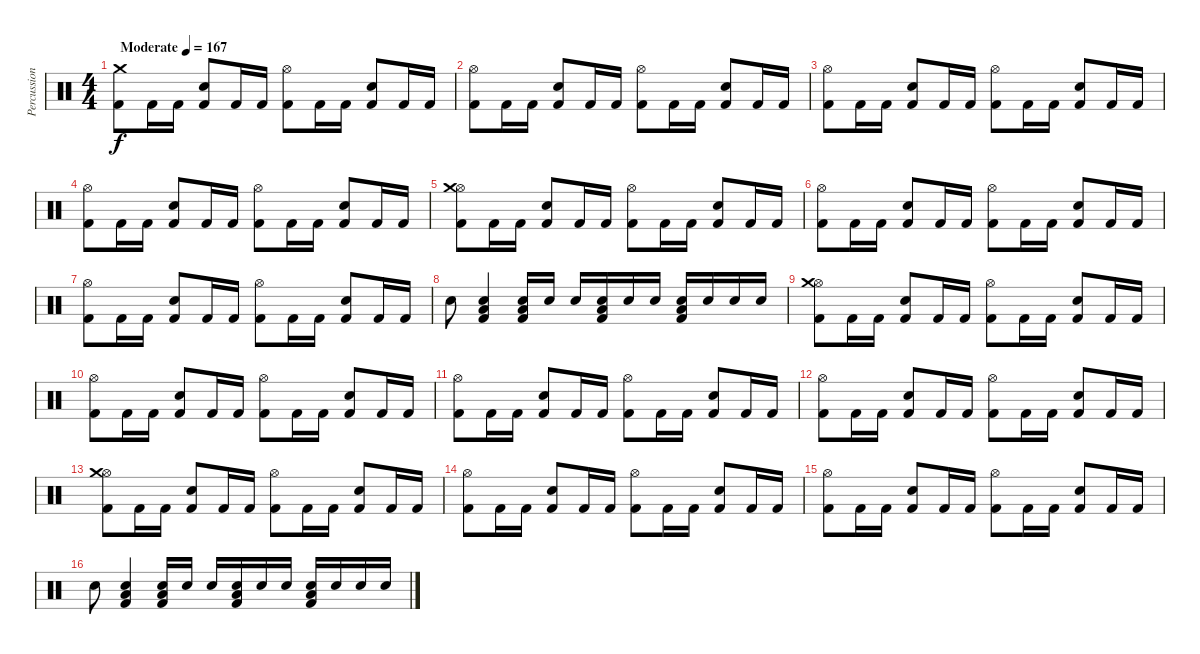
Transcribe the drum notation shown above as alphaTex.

\track ("Percussion" "Percussion") {instrument percussion}
\staff {score}
\articulation defaults
\ts (4 4)
\tempo (167 "Moderate")
\clef neutral
\ks c
("Crash medium (hit)" "Kick (hit) 2").8{dy f} "Kick (hit) 2".16 "Kick (hit) 2".16 ("Snare (hit) 2" "Kick (hit) 2").8 "Kick (hit) 2".16 "Kick (hit) 2".16 ("Hi-Hat (open)" "Kick (hit) 2").8 "Kick (hit) 2".16 "Kick (hit) 2".16 ("Snare (hit) 2" "Kick (hit) 2").8 "Kick (hit) 2".16 "Kick (hit) 2".16 |
("Hi-Hat (open)" "Kick (hit) 2").8 "Kick (hit) 2".16 "Kick (hit) 2".16 ("Snare (hit) 2" "Kick (hit) 2").8 "Kick (hit) 2".16 "Kick (hit) 2".16 ("Hi-Hat (open)" "Kick (hit) 2").8 "Kick (hit) 2".16 "Kick (hit) 2".16 ("Snare (hit) 2" "Kick (hit) 2").8 "Kick (hit) 2".16 "Kick (hit) 2".16 |
("Hi-Hat (open)" "Kick (hit) 2").8 "Kick (hit) 2".16 "Kick (hit) 2".16 ("Snare (hit) 2" "Kick (hit) 2").8 "Kick (hit) 2".16 "Kick (hit) 2".16 ("Hi-Hat (open)" "Kick (hit) 2").8 "Kick (hit) 2".16 "Kick (hit) 2".16 ("Snare (hit) 2" "Kick (hit) 2").8 "Kick (hit) 2".16 "Kick (hit) 2".16 |
("Hi-Hat (open)" "Kick (hit) 2").8 "Kick (hit) 2".16 "Kick (hit) 2".16 ("Snare (hit) 2" "Kick (hit) 2").8 "Kick (hit) 2".16 "Kick (hit) 2".16 ("Hi-Hat (open)" "Kick (hit) 2").8 "Kick (hit) 2".16 "Kick (hit) 2".16 ("Snare (hit) 2" "Kick (hit) 2").8 "Kick (hit) 2".16 "Kick (hit) 2".16 |
("Hi-Hat (open)" "Crash medium (hit)" "Kick (hit) 2").8 "Kick (hit) 2".16 "Kick (hit) 2".16 ("Snare (hit) 2" "Kick (hit) 2").8 "Kick (hit) 2".16 "Kick (hit) 2".16 ("Hi-Hat (open)" "Kick (hit) 2").8 "Kick (hit) 2".16 "Kick (hit) 2".16 ("Snare (hit) 2" "Kick (hit) 2").8 "Kick (hit) 2".16 "Kick (hit) 2".16 |
("Hi-Hat (open)" "Kick (hit) 2").8 "Kick (hit) 2".16 "Kick (hit) 2".16 ("Snare (hit) 2" "Kick (hit) 2").8 "Kick (hit) 2".16 "Kick (hit) 2".16 ("Hi-Hat (open)" "Kick (hit) 2").8 "Kick (hit) 2".16 "Kick (hit) 2".16 ("Snare (hit) 2" "Kick (hit) 2").8 "Kick (hit) 2".16 "Kick (hit) 2".16 |
("Hi-Hat (open)" "Kick (hit) 2").8 "Kick (hit) 2".16 "Kick (hit) 2".16 ("Snare (hit) 2" "Kick (hit) 2").8 "Kick (hit) 2".16 "Kick (hit) 2".16 ("Hi-Hat (open)" "Kick (hit) 2").8 "Kick (hit) 2".16 "Kick (hit) 2".16 ("Snare (hit) 2" "Kick (hit) 2").8 "Kick (hit) 2".16 "Kick (hit) 2".16 |
"Snare (hit) 2".8 ("Snare (hit) 2" "Low Tom (hit)" "Kick (hit) 2").4 ("Snare (hit) 2" "Low Tom (hit)" "Kick (hit) 2").16 "Snare (hit) 2".16 "Snare (hit) 2".16 ("Snare (hit) 2" "Low Tom (hit)" "Kick (hit) 2").16 "Snare (hit) 2".16 "Snare (hit) 2".16 ("Snare (hit) 2" "Low Tom (hit)" "Kick (hit) 2").16 "Snare (hit) 2".16 "Snare (hit) 2".16 "Snare (hit) 2".16 |
("Hi-Hat (open)" "Crash medium (hit)" "Kick (hit) 2").8 "Kick (hit) 2".16 "Kick (hit) 2".16 ("Snare (hit) 2" "Kick (hit) 2").8 "Kick (hit) 2".16 "Kick (hit) 2".16 ("Hi-Hat (open)" "Kick (hit) 2").8 "Kick (hit) 2".16 "Kick (hit) 2".16 ("Snare (hit) 2" "Kick (hit) 2").8 "Kick (hit) 2".16 "Kick (hit) 2".16 |
("Hi-Hat (open)" "Kick (hit) 2").8 "Kick (hit) 2".16 "Kick (hit) 2".16 ("Snare (hit) 2" "Kick (hit) 2").8 "Kick (hit) 2".16 "Kick (hit) 2".16 ("Hi-Hat (open)" "Kick (hit) 2").8 "Kick (hit) 2".16 "Kick (hit) 2".16 ("Snare (hit) 2" "Kick (hit) 2").8 "Kick (hit) 2".16 "Kick (hit) 2".16 |
("Hi-Hat (open)" "Kick (hit) 2").8 "Kick (hit) 2".16 "Kick (hit) 2".16 ("Snare (hit) 2" "Kick (hit) 2").8 "Kick (hit) 2".16 "Kick (hit) 2".16 ("Hi-Hat (open)" "Kick (hit) 2").8 "Kick (hit) 2".16 "Kick (hit) 2".16 ("Snare (hit) 2" "Kick (hit) 2").8 "Kick (hit) 2".16 "Kick (hit) 2".16 |
("Hi-Hat (open)" "Kick (hit) 2").8 "Kick (hit) 2".16 "Kick (hit) 2".16 ("Snare (hit) 2" "Kick (hit) 2").8 "Kick (hit) 2".16 "Kick (hit) 2".16 ("Hi-Hat (open)" "Kick (hit) 2").8 "Kick (hit) 2".16 "Kick (hit) 2".16 ("Snare (hit) 2" "Kick (hit) 2").8 "Kick (hit) 2".16 "Kick (hit) 2".16 |
("Hi-Hat (open)" "Crash medium (hit)" "Kick (hit) 2").8 "Kick (hit) 2".16 "Kick (hit) 2".16 ("Snare (hit) 2" "Kick (hit) 2").8 "Kick (hit) 2".16 "Kick (hit) 2".16 ("Hi-Hat (open)" "Kick (hit) 2").8 "Kick (hit) 2".16 "Kick (hit) 2".16 ("Snare (hit) 2" "Kick (hit) 2").8 "Kick (hit) 2".16 "Kick (hit) 2".16 |
("Hi-Hat (open)" "Kick (hit) 2").8 "Kick (hit) 2".16 "Kick (hit) 2".16 ("Snare (hit) 2" "Kick (hit) 2").8 "Kick (hit) 2".16 "Kick (hit) 2".16 ("Hi-Hat (open)" "Kick (hit) 2").8 "Kick (hit) 2".16 "Kick (hit) 2".16 ("Snare (hit) 2" "Kick (hit) 2").8 "Kick (hit) 2".16 "Kick (hit) 2".16 |
("Hi-Hat (open)" "Kick (hit) 2").8 "Kick (hit) 2".16 "Kick (hit) 2".16 ("Snare (hit) 2" "Kick (hit) 2").8 "Kick (hit) 2".16 "Kick (hit) 2".16 ("Hi-Hat (open)" "Kick (hit) 2").8 "Kick (hit) 2".16 "Kick (hit) 2".16 ("Snare (hit) 2" "Kick (hit) 2").8 "Kick (hit) 2".16 "Kick (hit) 2".16 |
"Snare (hit) 2".8 ("Snare (hit) 2" "Low Tom (hit)" "Kick (hit) 2").4 ("Snare (hit) 2" "Low Tom (hit)" "Kick (hit) 2").16 "Snare (hit) 2".16 "Snare (hit) 2".16 ("Snare (hit) 2" "Low Tom (hit)" "Kick (hit) 2").16 "Snare (hit) 2".16 "Snare (hit) 2".16 ("Snare (hit) 2" "Low Tom (hit)" "Kick (hit) 2").16 "Snare (hit) 2".16 "Snare (hit) 2".16 "Snare (hit) 2".16
